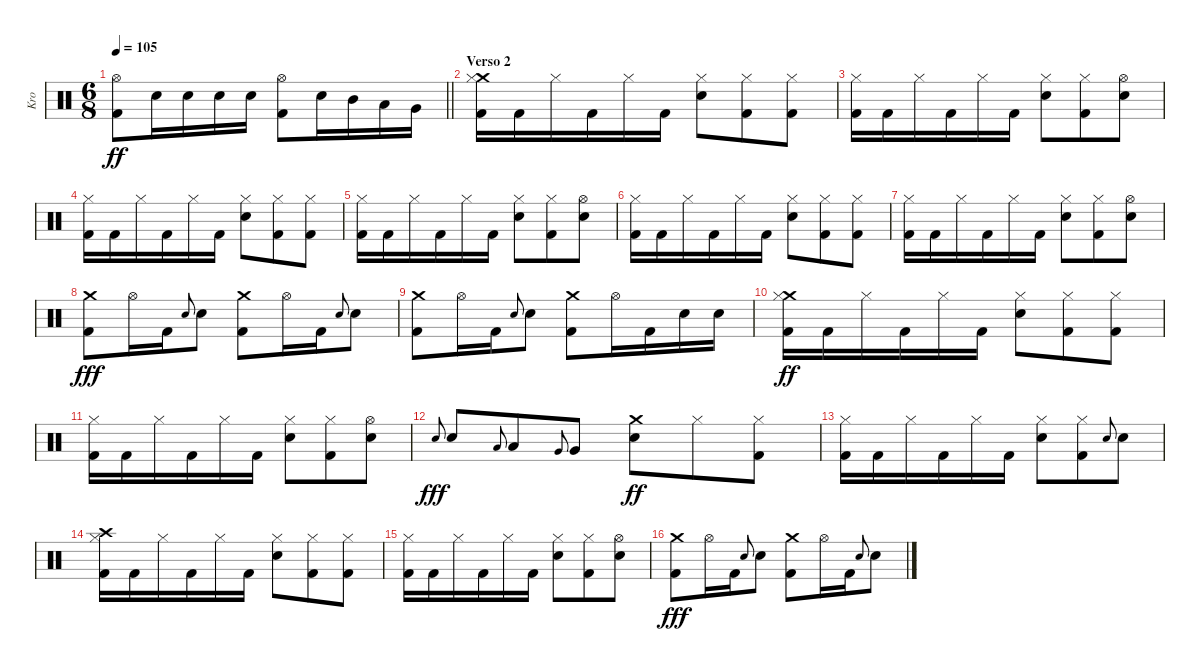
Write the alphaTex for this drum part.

\track ("Kro" "Kro") {instrument percussion}
\staff {score}
\articulation defaults
\ts (6 8)
\tempo 105
\clef neutral
\barLineRight lightlight
\ks c
("Hi-Hat (open)" "Kick (hit) 2").8{dy ff} "Electric Snare (hit)".16 "Electric Snare (hit)".16 "Electric Snare (hit)".16 "Electric Snare (hit)".16 ("Hi-Hat (open)" "Kick (hit) 2").8 "Electric Snare (hit)".16 "Mid Tom (hit)".16 "Low Tom (hit)".16 "Very Low Tom (hit)".16 |
\section ("" "Verso 2")
("Crash medium (hit)" "Hi-Hat (closed)" "Kick (hit) 2").16 "Kick (hit) 2".16 "Hi-Hat (closed)".16 "Kick (hit) 2".16 "Hi-Hat (closed)".16 "Kick (hit) 2".16 ("Hi-Hat (closed)" "Electric Snare (hit)").8 ("Hi-Hat (closed)" "Kick (hit) 2").8 ("Hi-Hat (closed)" "Kick (hit) 2").8 |
("Hi-Hat (closed)" "Kick (hit) 2").16 "Kick (hit) 2".16 "Hi-Hat (closed)".16 "Kick (hit) 2".16 "Hi-Hat (closed)".16 "Kick (hit) 2".16 ("Hi-Hat (closed)" "Electric Snare (hit)").8 ("Hi-Hat (closed)" "Kick (hit) 2").8 ("Hi-Hat (open)" "Electric Snare (hit)").8 |
("Hi-Hat (closed)" "Kick (hit) 2").16 "Kick (hit) 2".16 "Hi-Hat (closed)".16 "Kick (hit) 2".16 "Hi-Hat (closed)".16 "Kick (hit) 2".16 ("Hi-Hat (closed)" "Electric Snare (hit)").8 ("Hi-Hat (closed)" "Kick (hit) 2").8 ("Hi-Hat (closed)" "Kick (hit) 2").8 |
("Hi-Hat (closed)" "Kick (hit) 2").16 "Kick (hit) 2".16 "Hi-Hat (closed)".16 "Kick (hit) 2".16 "Hi-Hat (closed)".16 "Kick (hit) 2".16 ("Hi-Hat (closed)" "Electric Snare (hit)").8 ("Hi-Hat (closed)" "Kick (hit) 2").8 ("Hi-Hat (open)" "Electric Snare (hit)").8 |
("Hi-Hat (closed)" "Kick (hit) 2").16 "Kick (hit) 2".16 "Hi-Hat (closed)".16 "Kick (hit) 2".16 "Hi-Hat (closed)".16 "Kick (hit) 2".16 ("Hi-Hat (closed)" "Electric Snare (hit)").8 ("Hi-Hat (closed)" "Kick (hit) 2").8 ("Hi-Hat (closed)" "Kick (hit) 2").8 |
("Hi-Hat (closed)" "Kick (hit) 2").16 "Kick (hit) 2".16 "Hi-Hat (closed)".16 "Kick (hit) 2".16 "Hi-Hat (closed)".16 "Kick (hit) 2".16 ("Hi-Hat (closed)" "Electric Snare (hit)").8 ("Hi-Hat (closed)" "Kick (hit) 2").8 ("Hi-Hat (open)" "Electric Snare (hit)").8 |
("Crash medium (hit)" "Kick (hit) 2").8{dy fff} "Hi-Hat (open)".16 "Kick (hit) 2".16 "Electric Snare (hit)".8{gr onbeat} "Electric Snare (hit)".8 ("Crash medium (hit)" "Kick (hit) 2").8 "Hi-Hat (open)".16 "Kick (hit) 2".16 "Electric Snare (hit)".8{gr onbeat} "Electric Snare (hit)".8 |
("Crash medium (hit)" "Kick (hit) 2").8 "Hi-Hat (open)".16 "Kick (hit) 2".16 "Electric Snare (hit)".8{gr onbeat} "Electric Snare (hit)".8 ("Crash medium (hit)" "Kick (hit) 2").8 "Hi-Hat (open)".16 "Kick (hit) 2".16 "Electric Snare (hit)".16 "Electric Snare (hit)".16 |
("Crash medium (hit)" "Hi-Hat (closed)" "Kick (hit) 2").16{dy ff} "Kick (hit) 2".16 "Hi-Hat (closed)".16 "Kick (hit) 2".16 "Hi-Hat (closed)".16 "Kick (hit) 2".16 ("Hi-Hat (closed)" "Electric Snare (hit)").8 ("Hi-Hat (closed)" "Kick (hit) 2").8 ("Hi-Hat (closed)" "Kick (hit) 2").8 |
("Hi-Hat (closed)" "Kick (hit) 2").16 "Kick (hit) 2".16 "Hi-Hat (closed)".16 "Kick (hit) 2".16 "Hi-Hat (closed)".16 "Kick (hit) 2".16 ("Hi-Hat (closed)" "Electric Snare (hit)").8 ("Hi-Hat (closed)" "Kick (hit) 2").8 ("Hi-Hat (open)" "Electric Snare (hit)").8 |
"Electric Snare (hit)".8{gr onbeat dy fff} "Electric Snare (hit)".8 "Low Tom (hit)".8{gr onbeat} "Low Tom (hit)".8 "Very Low Tom (hit)".8{gr onbeat} "Very Low Tom (hit)".8 ("Crash medium (hit)" "Electric Snare (hit)").8{dy ff} "Hi-Hat (closed)".8 ("Hi-Hat (closed)" "Kick (hit) 2").8 |
("Hi-Hat (closed)" "Kick (hit) 2").16 "Kick (hit) 2".16 "Hi-Hat (closed)".16 "Kick (hit) 2".16 "Hi-Hat (closed)".16 "Kick (hit) 2".16 ("Hi-Hat (closed)" "Electric Snare (hit)").8 ("Hi-Hat (closed)" "Kick (hit) 2").8 "Electric Snare (hit)".8{gr onbeat} "Electric Snare (hit)".8 |
("Crash high (hit)" "Hi-Hat (closed)" "Kick (hit) 2").16 "Kick (hit) 2".16 "Hi-Hat (closed)".16 "Kick (hit) 2".16 "Hi-Hat (closed)".16 "Kick (hit) 2".16 ("Hi-Hat (closed)" "Electric Snare (hit)").8 ("Hi-Hat (closed)" "Kick (hit) 2").8 ("Hi-Hat (closed)" "Kick (hit) 2").8 |
("Hi-Hat (closed)" "Kick (hit) 2").16 "Kick (hit) 2".16 "Hi-Hat (closed)".16 "Kick (hit) 2".16 "Hi-Hat (closed)".16 "Kick (hit) 2".16 ("Hi-Hat (closed)" "Electric Snare (hit)").8 ("Hi-Hat (closed)" "Kick (hit) 2").8 ("Hi-Hat (open)" "Electric Snare (hit)").8 |
("Crash medium (hit)" "Kick (hit) 2").8{dy fff} "Hi-Hat (open)".16 "Kick (hit) 2".16 "Electric Snare (hit)".8{gr onbeat} "Electric Snare (hit)".8 ("Crash medium (hit)" "Kick (hit) 2").8 "Hi-Hat (open)".16 "Kick (hit) 2".16 "Electric Snare (hit)".8{gr onbeat} "Electric Snare (hit)".8
